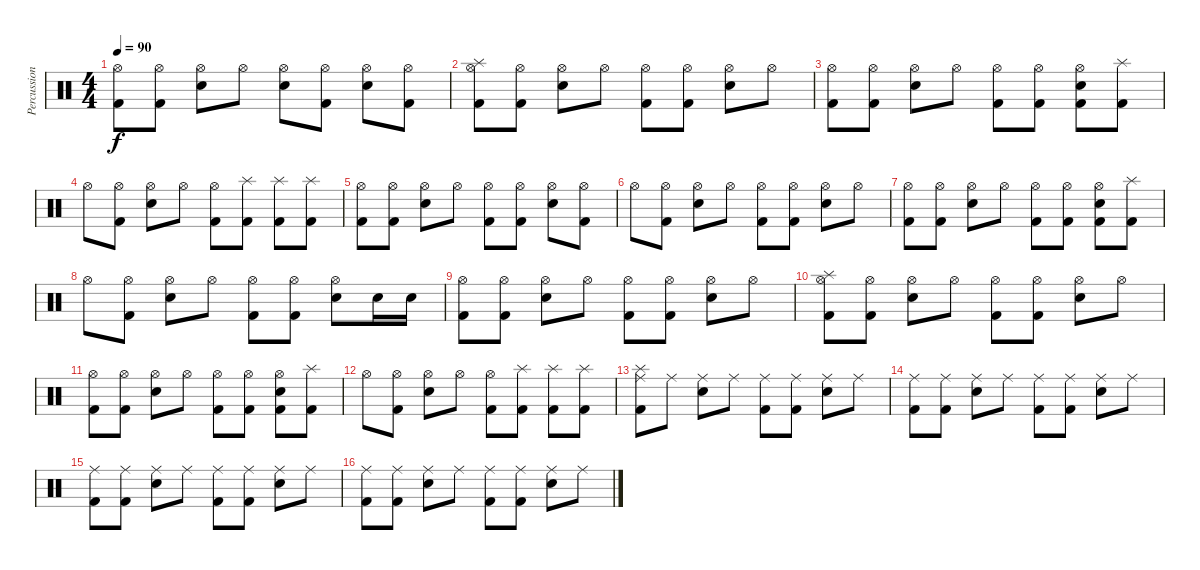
\track ("Percussion" "Percussion") {instrument percussion}
\staff {score}
\articulation defaults
\ts (4 4)
\tempo 90
\clef neutral
\ks c
("Hi-Hat (open)" "Kick (hit) 2").8{dy f} ("Hi-Hat (open)" "Kick (hit) 2").8 ("Hi-Hat (open)" "Snare (hit) 2").8 "Hi-Hat (open)".8 ("Hi-Hat (open)" "Snare (hit) 2").8 ("Hi-Hat (open)" "Kick (hit) 2").8 ("Hi-Hat (open)" "Snare (hit) 2").8 ("Hi-Hat (open)" "Kick (hit) 2").8 |
("Hi-Hat (open)" "Splash (hit)" "Kick (hit) 2").8 ("Hi-Hat (open)" "Kick (hit) 2").8 ("Hi-Hat (open)" "Snare (hit) 2").8 "Hi-Hat (open)".8 ("Hi-Hat (open)" "Kick (hit) 2").8 ("Hi-Hat (open)" "Kick (hit) 2").8 ("Hi-Hat (open)" "Snare (hit) 2").8 "Hi-Hat (open)".8 |
("Hi-Hat (open)" "Kick (hit) 2").8 ("Hi-Hat (open)" "Kick (hit) 2").8 ("Hi-Hat (open)" "Snare (hit) 2").8 "Hi-Hat (open)".8 ("Hi-Hat (open)" "Kick (hit) 2").8 ("Hi-Hat (open)" "Kick (hit) 2").8 ("Hi-Hat (open)" "Snare (hit) 2" "Kick (hit) 2").8 ("Splash (hit)" "Kick (hit) 2").8 |
"Hi-Hat (open)".8 ("Hi-Hat (open)" "Kick (hit) 2").8 ("Hi-Hat (open)" "Snare (hit) 2").8 "Hi-Hat (open)".8 ("Hi-Hat (open)" "Kick (hit) 2").8 ("Splash (hit)" "Kick (hit) 2").8 ("Splash (hit)" "Kick (hit) 2").8 ("Splash (hit)" "Kick (hit) 2").8 |
("Hi-Hat (open)" "Kick (hit) 2").8 ("Hi-Hat (open)" "Kick (hit) 2").8 ("Hi-Hat (open)" "Snare (hit) 2").8 "Hi-Hat (open)".8 ("Hi-Hat (open)" "Kick (hit) 2").8 ("Hi-Hat (open)" "Kick (hit) 2").8 ("Hi-Hat (open)" "Snare (hit) 2").8 ("Hi-Hat (open)" "Kick (hit) 2").8 |
"Hi-Hat (open)".8 ("Hi-Hat (open)" "Kick (hit) 2").8 ("Hi-Hat (open)" "Snare (hit) 2").8 "Hi-Hat (open)".8 ("Hi-Hat (open)" "Kick (hit) 2").8 ("Hi-Hat (open)" "Kick (hit) 2").8 ("Hi-Hat (open)" "Snare (hit) 2").8 "Hi-Hat (open)".8 |
("Hi-Hat (open)" "Kick (hit) 2").8 ("Hi-Hat (open)" "Kick (hit) 2").8 ("Hi-Hat (open)" "Snare (hit) 2").8 "Hi-Hat (open)".8 ("Hi-Hat (open)" "Kick (hit) 2").8 ("Hi-Hat (open)" "Kick (hit) 2").8 ("Hi-Hat (open)" "Snare (hit) 2" "Kick (hit) 2").8 ("Splash (hit)" "Kick (hit) 2").8 |
"Hi-Hat (open)".8 ("Hi-Hat (open)" "Kick (hit) 2").8 ("Hi-Hat (open)" "Snare (hit) 2").8 "Hi-Hat (open)".8 ("Hi-Hat (open)" "Kick (hit) 2").8 ("Hi-Hat (open)" "Kick (hit) 2").8 ("Hi-Hat (open)" "Snare (hit) 2").8 "Snare (hit) 2".16 "Snare (hit) 2".16 |
("Hi-Hat (open)" "Kick (hit) 2").8 ("Hi-Hat (open)" "Kick (hit) 2").8 ("Hi-Hat (open)" "Snare (hit) 2").8 "Hi-Hat (open)".8 ("Hi-Hat (open)" "Kick (hit) 2").8 ("Hi-Hat (open)" "Kick (hit) 2").8 ("Hi-Hat (open)" "Snare (hit) 2").8 "Hi-Hat (open)".8 |
("Hi-Hat (open)" "Splash (hit)" "Kick (hit) 2").8 ("Hi-Hat (open)" "Kick (hit) 2").8 ("Hi-Hat (open)" "Snare (hit) 2").8 "Hi-Hat (open)".8 ("Hi-Hat (open)" "Kick (hit) 2").8 ("Hi-Hat (open)" "Kick (hit) 2").8 ("Hi-Hat (open)" "Snare (hit) 2").8 "Hi-Hat (open)".8 |
("Hi-Hat (open)" "Kick (hit) 2").8 ("Hi-Hat (open)" "Kick (hit) 2").8 ("Hi-Hat (open)" "Snare (hit) 2").8 "Hi-Hat (open)".8 ("Hi-Hat (open)" "Kick (hit) 2").8 ("Hi-Hat (open)" "Kick (hit) 2").8 ("Hi-Hat (open)" "Snare (hit) 2" "Kick (hit) 2").8 ("Splash (hit)" "Kick (hit) 2").8 |
"Hi-Hat (open)".8 ("Hi-Hat (open)" "Kick (hit) 2").8 ("Hi-Hat (open)" "Snare (hit) 2").8 "Hi-Hat (open)".8 ("Hi-Hat (open)" "Kick (hit) 2").8 ("Splash (hit)" "Kick (hit) 2").8 ("Splash (hit)" "Kick (hit) 2").8 ("Splash (hit)" "Kick (hit) 2").8 |
("Ride (middle)" "Splash (hit)" "Kick (hit) 2").8 "Ride (middle)".8 ("Ride (middle)" "Snare (hit) 2").8 "Ride (middle)".8 ("Ride (middle)" "Kick (hit) 2").8 ("Ride (middle)" "Kick (hit) 2").8 ("Ride (middle)" "Snare (hit) 2").8 "Ride (middle)".8 |
("Ride (middle)" "Kick (hit) 2").8 ("Ride (middle)" "Kick (hit) 2").8 ("Ride (middle)" "Snare (hit) 2").8 "Ride (middle)".8 ("Ride (middle)" "Kick (hit) 2").8 ("Ride (middle)" "Kick (hit) 2").8 ("Ride (middle)" "Snare (hit) 2").8 "Ride (middle)".8 |
("Ride (middle)" "Kick (hit) 2").8 ("Ride (middle)" "Kick (hit) 2").8 ("Ride (middle)" "Snare (hit) 2").8 "Ride (middle)".8 ("Ride (middle)" "Kick (hit) 2").8 ("Ride (middle)" "Kick (hit) 2").8 ("Ride (middle)" "Snare (hit) 2").8 "Ride (middle)".8 |
("Ride (middle)" "Kick (hit) 2").8 ("Ride (middle)" "Kick (hit) 2").8 ("Ride (middle)" "Snare (hit) 2").8 "Ride (middle)".8 ("Ride (middle)" "Kick (hit) 2").8 ("Ride (middle)" "Kick (hit) 2").8 ("Ride (middle)" "Snare (hit) 2").8 "Ride (middle)".8
